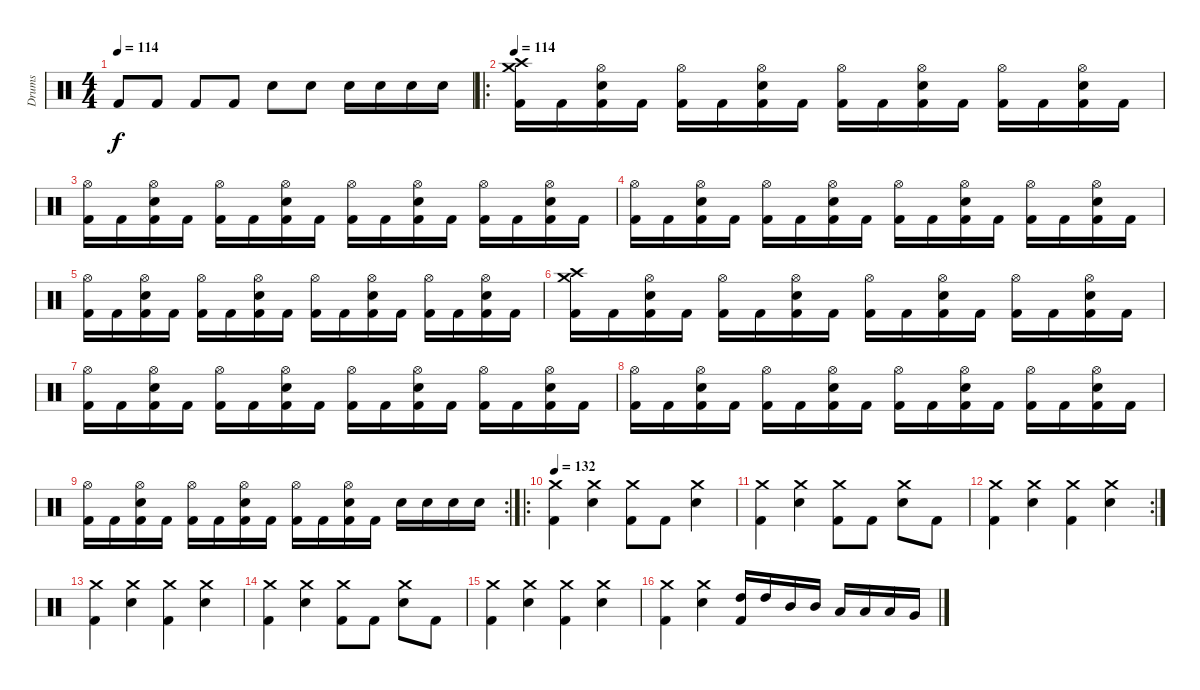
\track ("Drums" "Drums") {instrument percussion}
\staff {score}
\articulation defaults
\ts (4 4)
\tempo 114
\clef neutral
\ks c "Kick (hit) 2".8{dy f} "Kick (hit) 2".8 "Kick (hit) 2".8 "Kick (hit) 2".8 "Snare (hit) 2".8 "Snare (hit) 2".8 "Snare (hit) 2".16 "Snare (hit) 2".16 "Snare (hit) 2".16 "Snare (hit) 2".16
|
\ro
\tempo 114
("Crash medium (hit)" "Crash high (hit)" "Kick (hit) 2").16 "Kick (hit) 2".16 ("Hi-Hat (open)" "Snare (hit) 2" "Kick (hit) 2").16 "Kick (hit) 2".16 ("Hi-Hat (open)" "Kick (hit) 2").16 "Kick (hit) 2".16 ("Hi-Hat (open)" "Snare (hit) 2" "Kick (hit) 2").16 "Kick (hit) 2".16 ("Hi-Hat (open)" "Kick (hit) 2").16 "Kick (hit) 2".16 ("Hi-Hat (open)" "Snare (hit) 2" "Kick (hit) 2").16 "Kick (hit) 2".16 ("Hi-Hat (open)" "Kick (hit) 2").16 "Kick (hit) 2".16 ("Hi-Hat (open)" "Snare (hit) 2" "Kick (hit) 2").16 "Kick (hit) 2".16 |
("Hi-Hat (open)" "Kick (hit) 2").16 "Kick (hit) 2".16 ("Hi-Hat (open)" "Snare (hit) 2" "Kick (hit) 2").16 "Kick (hit) 2".16 ("Hi-Hat (open)" "Kick (hit) 2").16 "Kick (hit) 2".16 ("Hi-Hat (open)" "Snare (hit) 2" "Kick (hit) 2").16 "Kick (hit) 2".16 ("Hi-Hat (open)" "Kick (hit) 2").16 "Kick (hit) 2".16 ("Hi-Hat (open)" "Snare (hit) 2" "Kick (hit) 2").16 "Kick (hit) 2".16 ("Hi-Hat (open)" "Kick (hit) 2").16 "Kick (hit) 2".16 ("Hi-Hat (open)" "Snare (hit) 2" "Kick (hit) 2").16 "Kick (hit) 2".16 |
("Hi-Hat (open)" "Kick (hit) 2").16 "Kick (hit) 2".16 ("Hi-Hat (open)" "Snare (hit) 2" "Kick (hit) 2").16 "Kick (hit) 2".16 ("Hi-Hat (open)" "Kick (hit) 2").16 "Kick (hit) 2".16 ("Hi-Hat (open)" "Snare (hit) 2" "Kick (hit) 2").16 "Kick (hit) 2".16 ("Hi-Hat (open)" "Kick (hit) 2").16 "Kick (hit) 2".16 ("Hi-Hat (open)" "Snare (hit) 2" "Kick (hit) 2").16 "Kick (hit) 2".16 ("Hi-Hat (open)" "Kick (hit) 2").16 "Kick (hit) 2".16 ("Hi-Hat (open)" "Snare (hit) 2" "Kick (hit) 2").16 "Kick (hit) 2".16 |
("Hi-Hat (open)" "Kick (hit) 2").16 "Kick (hit) 2".16 ("Hi-Hat (open)" "Snare (hit) 2" "Kick (hit) 2").16 "Kick (hit) 2".16 ("Hi-Hat (open)" "Kick (hit) 2").16 "Kick (hit) 2".16 ("Hi-Hat (open)" "Snare (hit) 2" "Kick (hit) 2").16 "Kick (hit) 2".16 ("Hi-Hat (open)" "Kick (hit) 2").16 "Kick (hit) 2".16 ("Hi-Hat (open)" "Snare (hit) 2" "Kick (hit) 2").16 "Kick (hit) 2".16 ("Hi-Hat (open)" "Kick (hit) 2").16 "Kick (hit) 2".16 ("Hi-Hat (open)" "Snare (hit) 2" "Kick (hit) 2").16 "Kick (hit) 2".16 |
("Crash medium (hit)" "Crash high (hit)" "Kick (hit) 2").16 "Kick (hit) 2".16 ("Hi-Hat (open)" "Snare (hit) 2" "Kick (hit) 2").16 "Kick (hit) 2".16 ("Hi-Hat (open)" "Kick (hit) 2").16 "Kick (hit) 2".16 ("Hi-Hat (open)" "Snare (hit) 2" "Kick (hit) 2").16 "Kick (hit) 2".16 ("Hi-Hat (open)" "Kick (hit) 2").16 "Kick (hit) 2".16 ("Hi-Hat (open)" "Snare (hit) 2" "Kick (hit) 2").16 "Kick (hit) 2".16 ("Hi-Hat (open)" "Kick (hit) 2").16 "Kick (hit) 2".16 ("Hi-Hat (open)" "Snare (hit) 2" "Kick (hit) 2").16 "Kick (hit) 2".16 |
("Hi-Hat (open)" "Kick (hit) 2").16 "Kick (hit) 2".16 ("Hi-Hat (open)" "Snare (hit) 2" "Kick (hit) 2").16 "Kick (hit) 2".16 ("Hi-Hat (open)" "Kick (hit) 2").16 "Kick (hit) 2".16 ("Hi-Hat (open)" "Snare (hit) 2" "Kick (hit) 2").16 "Kick (hit) 2".16 ("Hi-Hat (open)" "Kick (hit) 2").16 "Kick (hit) 2".16 ("Hi-Hat (open)" "Snare (hit) 2" "Kick (hit) 2").16 "Kick (hit) 2".16 ("Hi-Hat (open)" "Kick (hit) 2").16 "Kick (hit) 2".16 ("Hi-Hat (open)" "Snare (hit) 2" "Kick (hit) 2").16 "Kick (hit) 2".16 |
("Hi-Hat (open)" "Kick (hit) 2").16 "Kick (hit) 2".16 ("Hi-Hat (open)" "Snare (hit) 2" "Kick (hit) 2").16 "Kick (hit) 2".16 ("Hi-Hat (open)" "Kick (hit) 2").16 "Kick (hit) 2".16 ("Hi-Hat (open)" "Snare (hit) 2" "Kick (hit) 2").16 "Kick (hit) 2".16 ("Hi-Hat (open)" "Kick (hit) 2").16 "Kick (hit) 2".16 ("Hi-Hat (open)" "Snare (hit) 2" "Kick (hit) 2").16 "Kick (hit) 2".16 ("Hi-Hat (open)" "Kick (hit) 2").16 "Kick (hit) 2".16 ("Hi-Hat (open)" "Snare (hit) 2" "Kick (hit) 2").16 "Kick (hit) 2".16 |
\rc 2
("Hi-Hat (open)" "Kick (hit) 2").16 "Kick (hit) 2".16 ("Hi-Hat (open)" "Snare (hit) 2" "Kick (hit) 2").16 "Kick (hit) 2".16 ("Hi-Hat (open)" "Kick (hit) 2").16 "Kick (hit) 2".16 ("Hi-Hat (open)" "Snare (hit) 2" "Kick (hit) 2").16 "Kick (hit) 2".16 ("Hi-Hat (open)" "Kick (hit) 2").16 "Kick (hit) 2".16 ("Hi-Hat (open)" "Snare (hit) 2" "Kick (hit) 2").16 "Kick (hit) 2".16 "Snare (hit) 2".16 "Snare (hit) 2".16 "Snare (hit) 2".16 "Snare (hit) 2".16 |
\ro
\tempo 132
("Crash medium (hit)" "Kick (hit) 2").4 ("Crash medium (hit)" "Snare (hit) 2").4 ("Crash medium (hit)" "Kick (hit) 2").8 "Kick (hit) 2".8 ("Crash medium (hit)" "Snare (hit) 2").4 |
("Crash medium (hit)" "Kick (hit) 2").4 ("Crash medium (hit)" "Snare (hit) 2").4 ("Crash medium (hit)" "Kick (hit) 2").8 "Kick (hit) 2".8 ("Crash medium (hit)" "Snare (hit) 2").8 "Kick (hit) 2".8 |
\rc 2
("Crash medium (hit)" "Kick (hit) 2").4 ("Crash medium (hit)" "Snare (hit) 2").4 ("Crash medium (hit)" "Kick (hit) 2").4 ("Crash medium (hit)" "Snare (hit) 2").4 |
("Crash medium (hit)" "Kick (hit) 2").4 ("Crash medium (hit)" "Snare (hit) 2").4 ("Crash medium (hit)" "Kick (hit) 2").4 ("Crash medium (hit)" "Snare (hit) 2").4 |
("Crash medium (hit)" "Kick (hit) 2").4 ("Crash medium (hit)" "Snare (hit) 2").4 ("Crash medium (hit)" "Kick (hit) 2").8 "Kick (hit) 2".8 ("Crash medium (hit)" "Snare (hit) 2").8 "Kick (hit) 2".8 |
("Crash medium (hit)" "Kick (hit) 2").4 ("Crash medium (hit)" "Snare (hit) 2").4 ("Crash medium (hit)" "Kick (hit) 2").4 ("Crash medium (hit)" "Snare (hit) 2").4 |
("Crash medium (hit)" "Kick (hit) 2").4 ("Crash medium (hit)" "Snare (hit) 2").4 ("High Tom (hit)" "Kick (hit) 2").16 "High Tom (hit)".16 "Mid Tom (hit)".16 "Mid Tom (hit)".16 "Low Tom (hit)".16 "Low Tom (hit)".16 "Low Tom (hit)".16 "Very Low Tom (hit)".16
